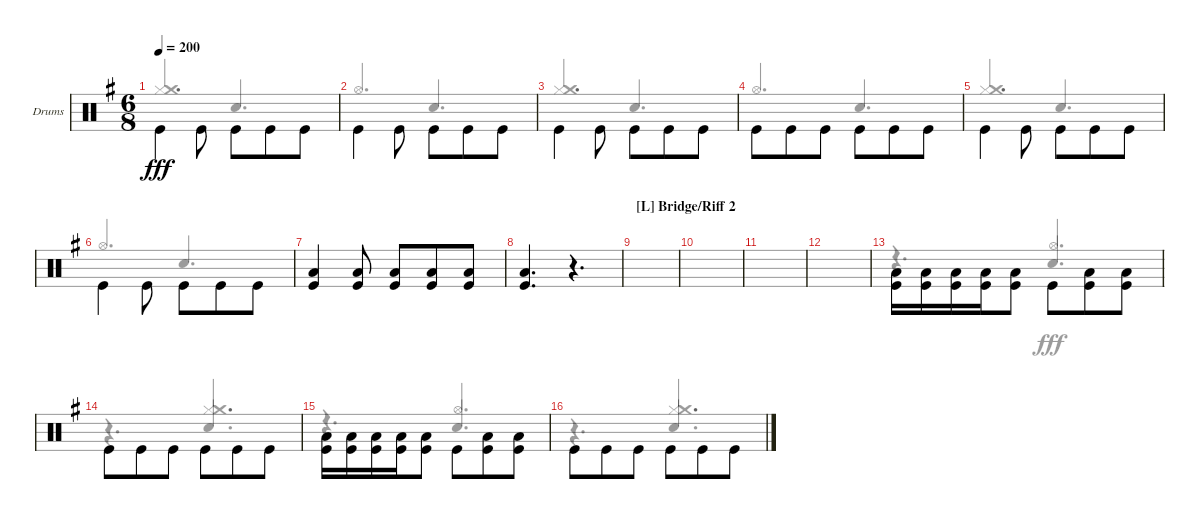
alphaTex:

\bracketExtendMode groupsimilarinstruments
\firstSystemTrackNameOrientation horizontal
\otherSystemsTrackNameOrientation horizontal
\track ("Drumkit" "Drums") {instrument percussion}
\staff {score}
\articulation defaults
\voice
\ts (6 8)
\tempo 200
\clef neutral
\ks eminor "Kick (hit)".4{dy fff beam invert} "Kick (hit)".8{beam invert} "Kick (hit)".8{beam invert} "Kick (hit)".8 "Kick (hit)".8
|
"Kick (hit)".4{beam invert} "Kick (hit)".8{beam invert} "Kick (hit)".8 "Kick (hit)".8{beam invert} "Kick (hit)".8 |
"Kick (hit)".4{beam invert} "Kick (hit)".8{beam invert} "Kick (hit)".8{beam invert} "Kick (hit)".8 "Kick (hit)".8 |
"Kick (hit)".8{beam invert} "Kick (hit)".8{beam invert} "Kick (hit)".8{beam invert} "Kick (hit)".8 "Kick (hit)".8 "Kick (hit)".8{beam invert} |
"Kick (hit)".4{beam invert} "Kick (hit)".8{beam invert} "Kick (hit)".8{beam invert} "Kick (hit)".8 "Kick (hit)".8 |
"Kick (hit)".4{beam invert} "Kick (hit)".8{beam invert} "Kick (hit)".8 "Kick (hit)".8{beam invert} "Kick (hit)".8 |
("Kick (hit)" "Low Tom (hit)").4 ("Kick (hit)" "Low Tom (hit)").8 ("Kick (hit)" "Low Tom (hit)").8 ("Kick (hit)" "Low Tom (hit)").8 ("Kick (hit)" "Low Tom (hit)").8 |
("Kick (hit)" "Low Tom (hit)").4{d} r.4{d} |
\section ("L" "Bridge/Riff 2")
|
|
|
|
("Low Tom (hit)" "Kick (hit)").16{beam invert} ("Low Tom (hit)" "Kick (hit)").16 ("Low Tom (hit)" "Kick (hit)").16 ("Low Tom (hit)" "Kick (hit)").16 ("Low Tom (hit)" "Kick (hit)").8 "Kick (hit)".8{beam invert} ("Low Tom (hit)" "Kick (hit)").8 ("Low Tom (hit)" "Kick (hit)").8 |
"Kick (hit)".8{beam invert} "Kick (hit)".8{beam invert} "Kick (hit)".8{beam invert} "Kick (hit)".8 "Kick (hit)".8 "Kick (hit)".8{beam invert} |
("Low Tom (hit)" "Kick (hit)").16{beam invert} ("Low Tom (hit)" "Kick (hit)").16 ("Low Tom (hit)" "Kick (hit)").16 ("Low Tom (hit)" "Kick (hit)").16 ("Low Tom (hit)" "Kick (hit)").8 "Kick (hit)".8{beam invert} ("Low Tom (hit)" "Kick (hit)").8 ("Low Tom (hit)" "Kick (hit)").8 |
"Kick (hit)".8{beam invert} "Kick (hit)".8{beam invert} "Kick (hit)".8{beam invert} "Kick (hit)".8 "Kick (hit)".8 "Kick (hit)".8{beam invert}
\voice
\clef neutral
\ottava regular
\simile none
\ks eminor
("Hi-Hat (closed)" "Crash medium (hit)").4{d dy fff beam invert} "Snare (hit) 2".4{d beam invert} |
"Hi-Hat (open)".4{d beam invert} "Snare (hit) 2".4{d beam invert} |
("Hi-Hat (closed)" "Crash medium (hit)").4{d beam invert} "Snare (hit) 2".4{d beam invert} |
"Hi-Hat (open)".4{d beam invert} "Snare (hit) 2".4{d beam invert} |
("Hi-Hat (closed)" "Crash medium (hit)").4{d beam invert} "Snare (hit) 2".4{d beam invert} |
"Hi-Hat (open)".4{d beam invert} "Snare (hit) 2".4{d beam invert} |
|
|
|
|
|
|
r.4{d} "Snare (hit) 2".4{d beam invert} |
r.4{d beam invert} "Snare (hit) 2".4{d beam invert} |
r.4{d} "Snare (hit) 2".4{d beam invert} |
r.4{d beam invert} "Snare (hit) 2".4{d beam invert}
\voice
\clef neutral
\ottava regular
\simile none
\ks eminor
|
|
|
|
|
|
|
|
|
|
|
|
r.4{d beam invert} "Hi-Hat (open)".4{d beam invert} |
r.4{d beam invert} ("Hi-Hat (closed)" "Crash medium (hit)").4{d beam invert} |
r.4{d beam invert} "Hi-Hat (open)".4{d beam invert} |
r.4{d beam invert} ("Hi-Hat (closed)" "Crash medium (hit)").4{d beam invert}
